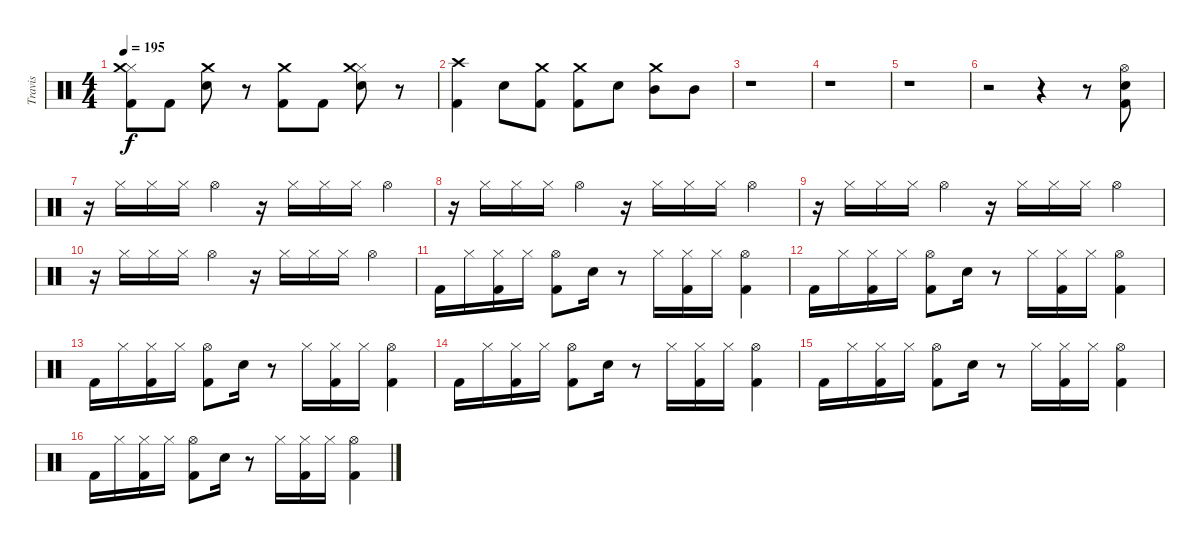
\track ("Travis" "Travis") {instrument percussion}
\staff {score}
\articulation defaults
\ts (4 4)
\tempo 195
\clef neutral
\ks c
("Kick (hit) 2" "Hi-Hat (closed)" "Crash medium (hit)").8{dy f} "Kick (hit) 2".8 ("Electric Snare (hit)" "Crash medium (hit)").8 r.8 ("Kick (hit) 2" "Crash medium (hit)").8 "Kick (hit) 2".8 ("Electric Snare (hit)" "Hi-Hat (closed)" "Crash medium (hit)").8 r.8 |
("Kick (hit) 2" "Crash high (hit)").4 "Electric Snare (hit)".8 ("Kick (hit) 2" "Crash medium (hit)").8 ("Kick (hit) 2" "Crash medium (hit)").8 "Electric Snare (hit)".8 ("Mid Tom (hit)" "Crash medium (hit)").8 "Mid Tom (hit)".8 |
r.1 |
r.1 |
r.1 |
r.2 r.4 r.8 ("Hi-Hat (open)" "Kick (hit) 2" "Electric Snare (hit)").8 |
r.16 "Hi-Hat (closed)".16 "Hi-Hat (closed)".16 "Hi-Hat (closed)".16 "Hi-Hat (open)".4 r.16 "Hi-Hat (closed)".16 "Hi-Hat (closed)".16 "Hi-Hat (closed)".16 "Hi-Hat (open)".4 |
r.16 "Hi-Hat (closed)".16 "Hi-Hat (closed)".16 "Hi-Hat (closed)".16 "Hi-Hat (open)".4 r.16 "Hi-Hat (closed)".16 "Hi-Hat (closed)".16 "Hi-Hat (closed)".16 "Hi-Hat (open)".4 |
r.16 "Hi-Hat (closed)".16 "Hi-Hat (closed)".16 "Hi-Hat (closed)".16 "Hi-Hat (open)".4 r.16 "Hi-Hat (closed)".16 "Hi-Hat (closed)".16 "Hi-Hat (closed)".16 "Hi-Hat (open)".4 |
r.16 "Hi-Hat (closed)".16 "Hi-Hat (closed)".16 "Hi-Hat (closed)".16 "Hi-Hat (open)".4 r.16 "Hi-Hat (closed)".16 "Hi-Hat (closed)".16 "Hi-Hat (closed)".16 "Hi-Hat (open)".4 |
"Kick (hit) 2".16 "Hi-Hat (closed)".16 ("Kick (hit) 2" "Hi-Hat (closed)").16 "Hi-Hat (closed)".16 ("Kick (hit) 2" "Hi-Hat (open)").8 "Electric Snare (hit)".16 r.8 "Hi-Hat (closed)".16 ("Kick (hit) 2" "Hi-Hat (closed)").16 "Hi-Hat (closed)".16 ("Kick (hit) 2" "Hi-Hat (open)").4 |
"Kick (hit) 2".16 "Hi-Hat (closed)".16 ("Kick (hit) 2" "Hi-Hat (closed)").16 "Hi-Hat (closed)".16 ("Kick (hit) 2" "Hi-Hat (open)").8 "Electric Snare (hit)".16 r.8 "Hi-Hat (closed)".16 ("Kick (hit) 2" "Hi-Hat (closed)").16 "Hi-Hat (closed)".16 ("Kick (hit) 2" "Hi-Hat (open)").4 |
"Kick (hit) 2".16 "Hi-Hat (closed)".16 ("Kick (hit) 2" "Hi-Hat (closed)").16 "Hi-Hat (closed)".16 ("Kick (hit) 2" "Hi-Hat (open)").8 "Electric Snare (hit)".16 r.8 "Hi-Hat (closed)".16 ("Kick (hit) 2" "Hi-Hat (closed)").16 "Hi-Hat (closed)".16 ("Kick (hit) 2" "Hi-Hat (open)").4 |
"Kick (hit) 2".16 "Hi-Hat (closed)".16 ("Kick (hit) 2" "Hi-Hat (closed)").16 "Hi-Hat (closed)".16 ("Kick (hit) 2" "Hi-Hat (open)").8 "Electric Snare (hit)".16 r.8 "Hi-Hat (closed)".16 ("Kick (hit) 2" "Hi-Hat (closed)").16 "Hi-Hat (closed)".16 ("Kick (hit) 2" "Hi-Hat (open)").4 |
"Kick (hit) 2".16 "Hi-Hat (closed)".16 ("Kick (hit) 2" "Hi-Hat (closed)").16 "Hi-Hat (closed)".16 ("Kick (hit) 2" "Hi-Hat (open)").8 "Electric Snare (hit)".16 r.8 "Hi-Hat (closed)".16 ("Kick (hit) 2" "Hi-Hat (closed)").16 "Hi-Hat (closed)".16 ("Kick (hit) 2" "Hi-Hat (open)").4 |
"Kick (hit) 2".16 "Hi-Hat (closed)".16 ("Kick (hit) 2" "Hi-Hat (closed)").16 "Hi-Hat (closed)".16 ("Kick (hit) 2" "Hi-Hat (open)").8 "Electric Snare (hit)".16 r.8 "Hi-Hat (closed)".16 ("Kick (hit) 2" "Hi-Hat (closed)").16 "Hi-Hat (closed)".16 ("Kick (hit) 2" "Hi-Hat (open)").4
